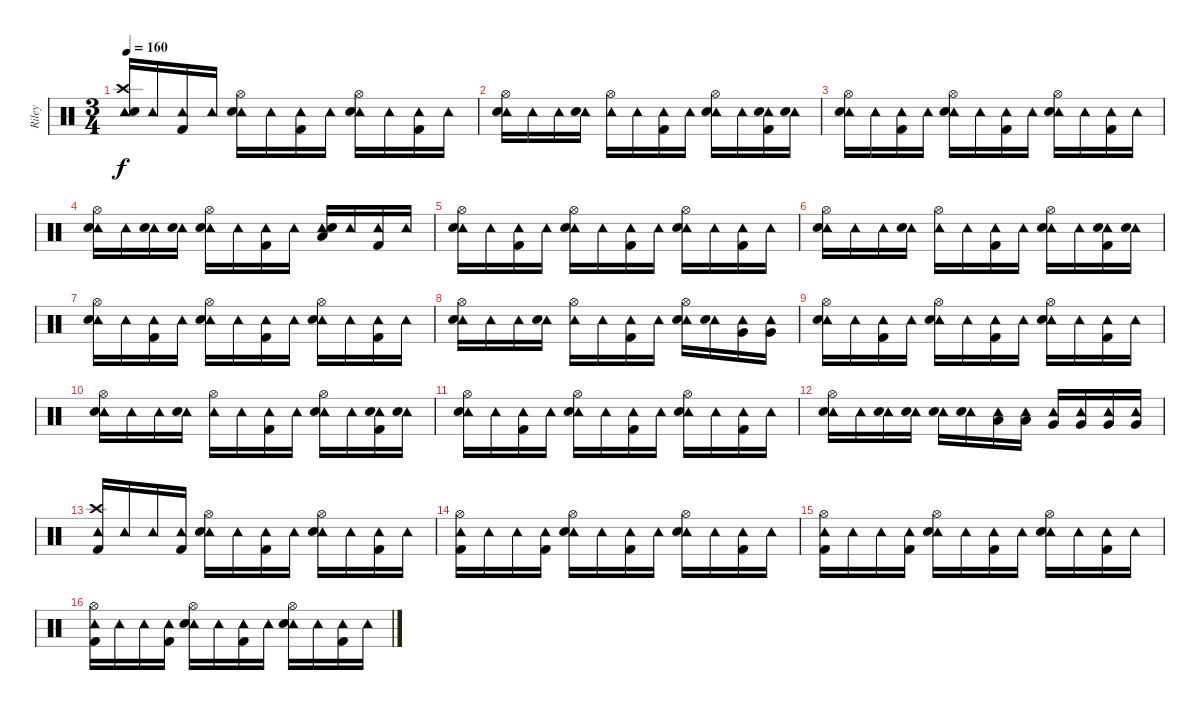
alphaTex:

\track ("Riley" "Riley") {instrument percussion}
\staff {score}
\articulation defaults
\ts (3 4)
\tempo 160
\clef neutral
\ks c
("Tambourine (hit)" "Crash high (hit)" "Electric Snare (hit)").16{dy f} "Tambourine (hit)".16 ("Tambourine (hit)" "Kick (hit) 2").16 "Tambourine (hit)".16 ("Tambourine (hit)" "Hi-Hat (open)" "Electric Snare (hit)").16 "Tambourine (hit)".16 ("Tambourine (hit)" "Kick (hit) 2").16 "Tambourine (hit)".16 ("Tambourine (hit)" "Hi-Hat (open)" "Electric Snare (hit)").16 "Tambourine (hit)".16 ("Tambourine (hit)" "Kick (hit) 2").16 "Tambourine (hit)".16 |
("Tambourine (hit)" "Hi-Hat (open)" "Electric Snare (hit)").16 "Tambourine (hit)".16 "Tambourine (hit)".16 ("Tambourine (hit)" "Electric Snare (hit)").16 ("Tambourine (hit)" "Hi-Hat (open)").16 "Tambourine (hit)".16 ("Tambourine (hit)" "Kick (hit) 2").16 "Tambourine (hit)".16 ("Tambourine (hit)" "Hi-Hat (open)" "Electric Snare (hit)").16 "Tambourine (hit)".16 ("Tambourine (hit)" "Electric Snare (hit)" "Kick (hit) 2").16 ("Tambourine (hit)" "Electric Snare (hit)").16 |
("Tambourine (hit)" "Hi-Hat (open)" "Electric Snare (hit)").16 "Tambourine (hit)".16 ("Tambourine (hit)" "Kick (hit) 2").16 "Tambourine (hit)".16 ("Tambourine (hit)" "Hi-Hat (open)" "Electric Snare (hit)").16 "Tambourine (hit)".16 ("Tambourine (hit)" "Kick (hit) 2").16 "Tambourine (hit)".16 ("Tambourine (hit)" "Hi-Hat (open)" "Electric Snare (hit)").16 "Tambourine (hit)".16 ("Tambourine (hit)" "Kick (hit) 2").16 "Tambourine (hit)".16 |
("Tambourine (hit)" "Hi-Hat (open)" "Electric Snare (hit)").16 "Tambourine (hit)".16 ("Tambourine (hit)" "Electric Snare (hit)").16 ("Tambourine (hit)" "Electric Snare (hit)").16 ("Tambourine (hit)" "Hi-Hat (open)" "Electric Snare (hit)").16 "Tambourine (hit)".16 ("Tambourine (hit)" "Kick (hit) 2").16 "Tambourine (hit)".16 ("Tambourine (hit)" "Low Floor Tom (hit)" "Electric Snare (hit)").16 "Tambourine (hit)".16 ("Tambourine (hit)" "Kick (hit) 2").16 "Tambourine (hit)".16 |
("Tambourine (hit)" "Hi-Hat (open)" "Electric Snare (hit)").16 "Tambourine (hit)".16 ("Tambourine (hit)" "Kick (hit) 2").16 "Tambourine (hit)".16 ("Tambourine (hit)" "Hi-Hat (open)" "Electric Snare (hit)").16 "Tambourine (hit)".16 ("Tambourine (hit)" "Kick (hit) 2").16 "Tambourine (hit)".16 ("Tambourine (hit)" "Hi-Hat (open)" "Electric Snare (hit)").16 "Tambourine (hit)".16 ("Tambourine (hit)" "Kick (hit) 2").16 "Tambourine (hit)".16 |
("Tambourine (hit)" "Hi-Hat (open)" "Electric Snare (hit)").16 "Tambourine (hit)".16 "Tambourine (hit)".16 ("Tambourine (hit)" "Electric Snare (hit)").16 ("Tambourine (hit)" "Hi-Hat (open)").16 "Tambourine (hit)".16 ("Tambourine (hit)" "Kick (hit) 2").16 "Tambourine (hit)".16 ("Tambourine (hit)" "Hi-Hat (open)" "Electric Snare (hit)").16 "Tambourine (hit)".16 ("Tambourine (hit)" "Electric Snare (hit)" "Kick (hit) 2").16 ("Tambourine (hit)" "Electric Snare (hit)").16 |
("Tambourine (hit)" "Hi-Hat (open)" "Electric Snare (hit)").16 "Tambourine (hit)".16 ("Tambourine (hit)" "Kick (hit) 2").16 "Tambourine (hit)".16 ("Tambourine (hit)" "Hi-Hat (open)" "Electric Snare (hit)").16 "Tambourine (hit)".16 ("Tambourine (hit)" "Kick (hit) 2").16 "Tambourine (hit)".16 ("Tambourine (hit)" "Hi-Hat (open)" "Electric Snare (hit)").16 "Tambourine (hit)".16 ("Tambourine (hit)" "Kick (hit) 2").16 "Tambourine (hit)".16 |
("Tambourine (hit)" "Hi-Hat (open)" "Electric Snare (hit)").16 "Tambourine (hit)".16 "Tambourine (hit)".16 ("Tambourine (hit)" "Electric Snare (hit)").16 ("Tambourine (hit)" "Hi-Hat (open)").16 "Tambourine (hit)".16 ("Tambourine (hit)" "Kick (hit) 2").16 "Tambourine (hit)".16 ("Tambourine (hit)" "Hi-Hat (open)" "Electric Snare (hit)").16 ("Tambourine (hit)" "Electric Snare (hit)").16 ("Tambourine (hit)" "Very Low Tom (hit)").16 ("Tambourine (hit)" "Very Low Tom (hit)").16 |
("Tambourine (hit)" "Hi-Hat (open)" "Electric Snare (hit)").16 "Tambourine (hit)".16 ("Tambourine (hit)" "Kick (hit) 2").16 "Tambourine (hit)".16 ("Tambourine (hit)" "Hi-Hat (open)" "Electric Snare (hit)").16 "Tambourine (hit)".16 ("Tambourine (hit)" "Kick (hit) 2").16 "Tambourine (hit)".16 ("Tambourine (hit)" "Hi-Hat (open)" "Electric Snare (hit)").16 "Tambourine (hit)".16 ("Tambourine (hit)" "Kick (hit) 2").16 "Tambourine (hit)".16 |
("Tambourine (hit)" "Hi-Hat (open)" "Electric Snare (hit)").16 "Tambourine (hit)".16 "Tambourine (hit)".16 ("Tambourine (hit)" "Electric Snare (hit)").16 ("Tambourine (hit)" "Hi-Hat (open)").16 "Tambourine (hit)".16 ("Tambourine (hit)" "Kick (hit) 2").16 "Tambourine (hit)".16 ("Tambourine (hit)" "Hi-Hat (open)" "Electric Snare (hit)").16 "Tambourine (hit)".16 ("Tambourine (hit)" "Electric Snare (hit)" "Kick (hit) 2").16 ("Tambourine (hit)" "Electric Snare (hit)").16 |
("Tambourine (hit)" "Hi-Hat (open)" "Electric Snare (hit)").16 "Tambourine (hit)".16 ("Tambourine (hit)" "Kick (hit) 2").16 "Tambourine (hit)".16 ("Tambourine (hit)" "Hi-Hat (open)" "Electric Snare (hit)").16 "Tambourine (hit)".16 ("Tambourine (hit)" "Kick (hit) 2").16 "Tambourine (hit)".16 ("Tambourine (hit)" "Hi-Hat (open)" "Electric Snare (hit)").16 "Tambourine (hit)".16 ("Tambourine (hit)" "Kick (hit) 2").16 "Tambourine (hit)".16 |
("Tambourine (hit)" "Hi-Hat (open)" "Electric Snare (hit)").16 "Tambourine (hit)".16 ("Tambourine (hit)" "Electric Snare (hit)").16 ("Tambourine (hit)" "Electric Snare (hit)").16 ("Tambourine (hit)" "Electric Snare (hit)").16 ("Tambourine (hit)" "Electric Snare (hit)").16 ("Tambourine (hit)" "Low Tom (hit)").16 ("Tambourine (hit)" "Low Tom (hit)").16 ("Tambourine (hit)" "Very Low Tom (hit)").16 ("Tambourine (hit)" "Very Low Tom (hit)").16 ("Tambourine (hit)" "Very Low Tom (hit)").16 ("Tambourine (hit)" "Very Low Tom (hit)").16 |
("Tambourine (hit)" "Crash high (hit)" "Kick (hit) 2").16 "Tambourine (hit)".16 "Tambourine (hit)".16 ("Tambourine (hit)" "Kick (hit) 2").16 ("Tambourine (hit)" "Hi-Hat (open)" "Electric Snare (hit)").16 "Tambourine (hit)".16 ("Tambourine (hit)" "Kick (hit) 2").16 "Tambourine (hit)".16 ("Tambourine (hit)" "Hi-Hat (open)" "Electric Snare (hit)").16 "Tambourine (hit)".16 ("Tambourine (hit)" "Kick (hit) 2").16 "Tambourine (hit)".16 |
("Tambourine (hit)" "Hi-Hat (open)" "Kick (hit) 2").16 "Tambourine (hit)".16 "Tambourine (hit)".16 ("Tambourine (hit)" "Kick (hit) 2").16 ("Tambourine (hit)" "Hi-Hat (open)" "Electric Snare (hit)").16 "Tambourine (hit)".16 ("Tambourine (hit)" "Kick (hit) 2").16 "Tambourine (hit)".16 ("Tambourine (hit)" "Hi-Hat (open)" "Electric Snare (hit)").16 "Tambourine (hit)".16 ("Tambourine (hit)" "Kick (hit) 2").16 "Tambourine (hit)".16 |
("Tambourine (hit)" "Hi-Hat (open)" "Kick (hit) 2").16 "Tambourine (hit)".16 "Tambourine (hit)".16 ("Tambourine (hit)" "Kick (hit) 2").16 ("Tambourine (hit)" "Hi-Hat (open)" "Electric Snare (hit)").16 "Tambourine (hit)".16 ("Tambourine (hit)" "Kick (hit) 2").16 "Tambourine (hit)".16 ("Tambourine (hit)" "Hi-Hat (open)" "Electric Snare (hit)").16 "Tambourine (hit)".16 ("Tambourine (hit)" "Kick (hit) 2").16 "Tambourine (hit)".16 |
("Tambourine (hit)" "Hi-Hat (open)" "Kick (hit) 2").16 "Tambourine (hit)".16 "Tambourine (hit)".16 ("Tambourine (hit)" "Kick (hit) 2").16 ("Tambourine (hit)" "Hi-Hat (open)" "Electric Snare (hit)").16 "Tambourine (hit)".16 ("Tambourine (hit)" "Kick (hit) 2").16 "Tambourine (hit)".16 ("Tambourine (hit)" "Hi-Hat (open)" "Electric Snare (hit)").16 "Tambourine (hit)".16 ("Tambourine (hit)" "Kick (hit) 2").16 "Tambourine (hit)".16
